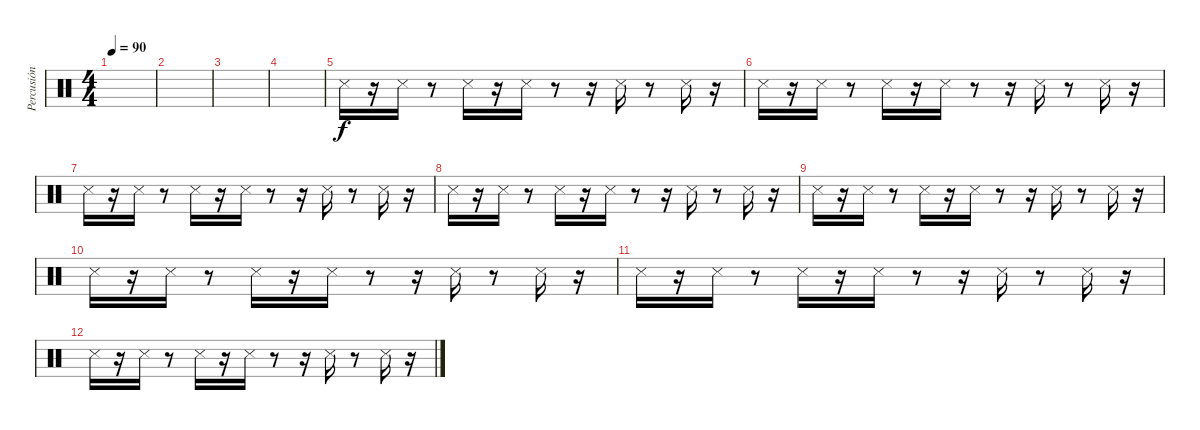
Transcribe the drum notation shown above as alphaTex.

\track ("Percusión" "Percusión") {instrument percussion}
\staff {score}
\articulation defaults
\ts (4 4)
\tempo 90
\clef neutral
\ks c
|
|
|
|
"Metronome (hit)".16{balance 8} r.16 "Metronome (hit)".16 r.8 "Metronome (hit)".16 r.16 "Metronome (hit)".16 r.8 r.16 "Metronome (hit)".16 r.8 "Metronome (hit)".16 r.16 |
"Metronome (hit)".16 r.16 "Metronome (hit)".16 r.8 "Metronome (hit)".16 r.16 "Metronome (hit)".16 r.8 r.16 "Metronome (hit)".16 r.8 "Metronome (hit)".16 r.16 |
"Metronome (hit)".16 r.16 "Metronome (hit)".16 r.8 "Metronome (hit)".16 r.16 "Metronome (hit)".16 r.8 r.16 "Metronome (hit)".16 r.8 "Metronome (hit)".16 r.16 |
"Metronome (hit)".16 r.16 "Metronome (hit)".16 r.8 "Metronome (hit)".16 r.16 "Metronome (hit)".16 r.8 r.16 "Metronome (hit)".16 r.8 "Metronome (hit)".16 r.16 |
"Metronome (hit)".16 r.16 "Metronome (hit)".16 r.8 "Metronome (hit)".16 r.16 "Metronome (hit)".16 r.8 r.16 "Metronome (hit)".16 r.8 "Metronome (hit)".16 r.16 |
"Metronome (hit)".16 r.16 "Metronome (hit)".16 r.8 "Metronome (hit)".16 r.16 "Metronome (hit)".16 r.8 r.16 "Metronome (hit)".16 r.8 "Metronome (hit)".16 r.16 |
"Metronome (hit)".16 r.16 "Metronome (hit)".16 r.8 "Metronome (hit)".16 r.16 "Metronome (hit)".16 r.8 r.16 "Metronome (hit)".16 r.8 "Metronome (hit)".16 r.16 |
"Metronome (hit)".16 r.16 "Metronome (hit)".16 r.8 "Metronome (hit)".16 r.16 "Metronome (hit)".16 r.8 r.16 "Metronome (hit)".16 r.8 "Metronome (hit)".16 r.16
